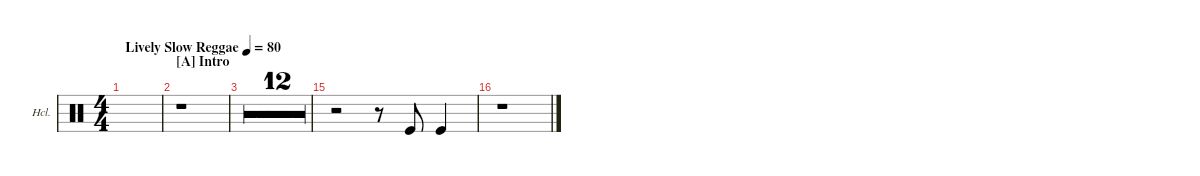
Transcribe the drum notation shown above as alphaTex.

\defaultSystemsLayout 4
\hideDynamics
\bracketExtendMode groupsimilarinstruments
\firstSystemTrackNameOrientation horizontal
\otherSystemsTrackNameOrientation horizontal
\track ("Hand Clap" "Hcl.") {multiBarRest instrument percussion}
\staff {score}
\articulation defaults
\ts (4 4)
\ac
\tempo (80 "Lively Slow Reggae")
\clef neutral
\ks c
|
\section ("A" "Intro")
r.1 |
r.1 |
r.1 |
r.1 |
r.1 |
r.1 |
r.1 |
r.1 |
r.1 |
r.1 |
r.1 |
r.1 |
r.1 |
r.2 r.8 "Kick (hit)".8 "Kick (hit)".4 |
r.1
